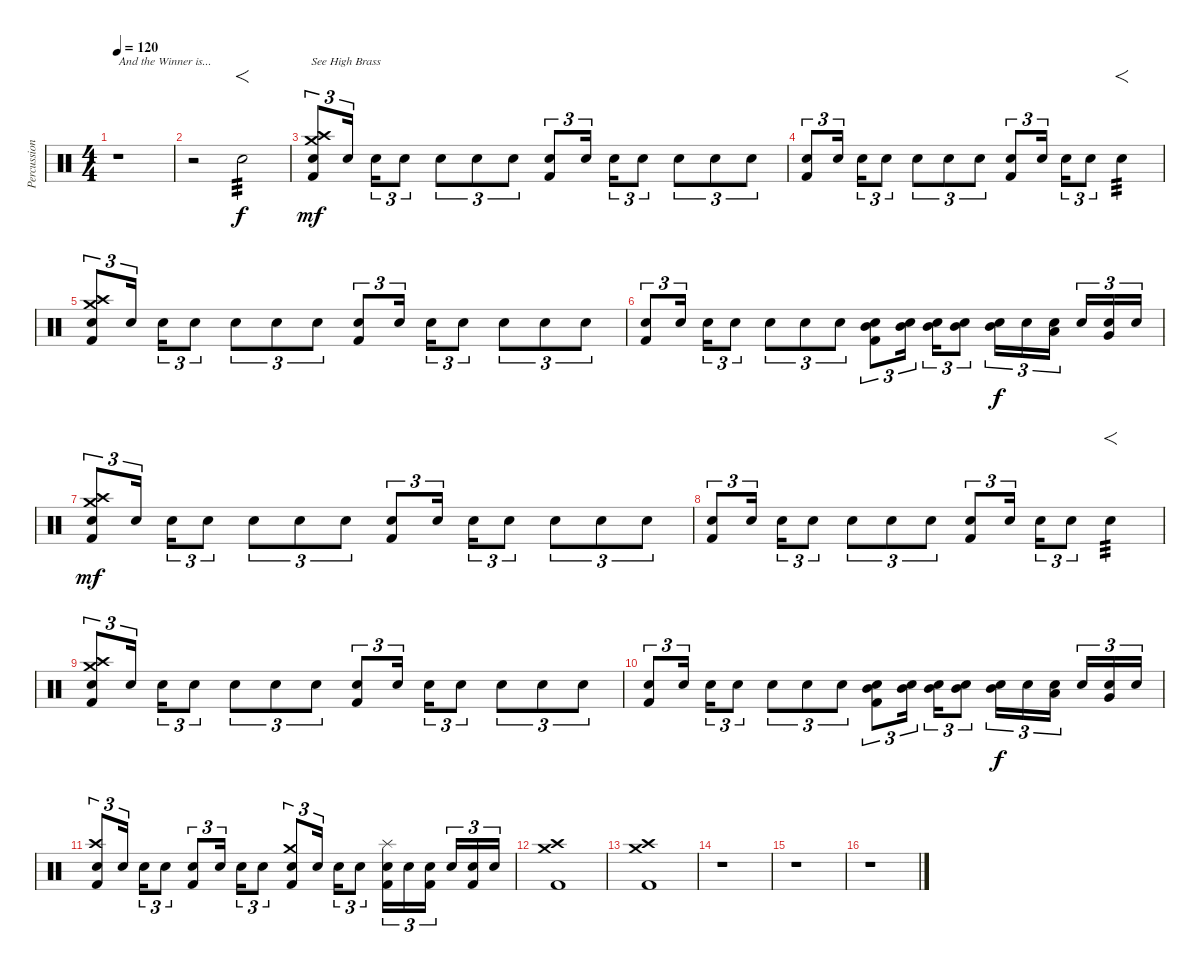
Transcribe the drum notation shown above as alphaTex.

\track ("Percussion" "Percussion") {instrument percussion}
\staff {score}
\articulation defaults
\ts (4 4)
\tempo 120
\clef neutral
\ks c
r.1{txt "And the Winner is..." dy f} |
r.2 "Snare (hit) 2".2{f tp 3} |
("Crash high (hit)" "Crash medium (hit)" "Snare (hit) 2" "Kick (hit) 2").8{tu (3 2) txt "See High Brass" dy mf} "Snare (hit) 2".16{tu (3 2)} "Snare (hit) 2".16{tu (3 2)} "Snare (hit) 2".8{tu (3 2)} "Snare (hit) 2".8{tu (3 2)} "Snare (hit) 2".8{tu (3 2)} "Snare (hit) 2".8{tu (3 2)} ("Snare (hit) 2" "Kick (hit) 2").8{tu (3 2)} "Snare (hit) 2".16{tu (3 2)} "Snare (hit) 2".16{tu (3 2)} "Snare (hit) 2".8{tu (3 2)} "Snare (hit) 2".8{tu (3 2)} "Snare (hit) 2".8{tu (3 2)} "Snare (hit) 2".8{tu (3 2)} |
("Snare (hit) 2" "Kick (hit) 2").8{tu (3 2)} "Snare (hit) 2".16{tu (3 2)} "Snare (hit) 2".16{tu (3 2)} "Snare (hit) 2".8{tu (3 2)} "Snare (hit) 2".8{tu (3 2)} "Snare (hit) 2".8{tu (3 2)} "Snare (hit) 2".8{tu (3 2)} ("Snare (hit) 2" "Kick (hit) 2").8{tu (3 2)} "Snare (hit) 2".16{tu (3 2)} "Snare (hit) 2".16{tu (3 2)} "Snare (hit) 2".8{tu (3 2)} "Snare (hit) 2".4{f tp 3} |
("Crash high (hit)" "Crash medium (hit)" "Snare (hit) 2" "Kick (hit) 2").8{tu (3 2)} "Snare (hit) 2".16{tu (3 2)} "Snare (hit) 2".16{tu (3 2)} "Snare (hit) 2".8{tu (3 2)} "Snare (hit) 2".8{tu (3 2)} "Snare (hit) 2".8{tu (3 2)} "Snare (hit) 2".8{tu (3 2)} ("Snare (hit) 2" "Kick (hit) 2").8{tu (3 2)} "Snare (hit) 2".16{tu (3 2)} "Snare (hit) 2".16{tu (3 2)} "Snare (hit) 2".8{tu (3 2)} "Snare (hit) 2".8{tu (3 2)} "Snare (hit) 2".8{tu (3 2)} "Snare (hit) 2".8{tu (3 2)} |
("Snare (hit) 2" "Kick (hit) 2").8{tu (3 2)} "Snare (hit) 2".16{tu (3 2)} "Snare (hit) 2".16{tu (3 2)} "Snare (hit) 2".8{tu (3 2)} "Snare (hit) 2".8{tu (3 2)} "Snare (hit) 2".8{tu (3 2)} "Snare (hit) 2".8{tu (3 2)} ("Mid Tom (hit)" "Snare (hit) 2" "Kick (hit) 2").8{tu (3 2)} ("Mid Tom (hit)" "Snare (hit) 2").16{tu (3 2)} ("Mid Tom (hit)" "Snare (hit) 2").16{tu (3 2)} ("Mid Tom (hit)" "Snare (hit) 2").8{tu (3 2)} ("Mid Tom (hit)" "Snare (hit) 2").16{tu (3 2) dy f} "Snare (hit) 2".16{tu (3 2)} ("Low Tom (hit)" "Snare (hit) 2").16{tu (3 2)} "Snare (hit) 2".16{tu (3 2)} ("Very Low Tom (hit)" "Snare (hit) 2").16{tu (3 2)} "Snare (hit) 2".16{tu (3 2)} |
("Crash high (hit)" "Crash medium (hit)" "Snare (hit) 2" "Kick (hit) 2").8{tu (3 2) dy mf} "Snare (hit) 2".16{tu (3 2)} "Snare (hit) 2".16{tu (3 2)} "Snare (hit) 2".8{tu (3 2)} "Snare (hit) 2".8{tu (3 2)} "Snare (hit) 2".8{tu (3 2)} "Snare (hit) 2".8{tu (3 2)} ("Snare (hit) 2" "Kick (hit) 2").8{tu (3 2)} "Snare (hit) 2".16{tu (3 2)} "Snare (hit) 2".16{tu (3 2)} "Snare (hit) 2".8{tu (3 2)} "Snare (hit) 2".8{tu (3 2)} "Snare (hit) 2".8{tu (3 2)} "Snare (hit) 2".8{tu (3 2)} |
("Snare (hit) 2" "Kick (hit) 2").8{tu (3 2)} "Snare (hit) 2".16{tu (3 2)} "Snare (hit) 2".16{tu (3 2)} "Snare (hit) 2".8{tu (3 2)} "Snare (hit) 2".8{tu (3 2)} "Snare (hit) 2".8{tu (3 2)} "Snare (hit) 2".8{tu (3 2)} ("Snare (hit) 2" "Kick (hit) 2").8{tu (3 2)} "Snare (hit) 2".16{tu (3 2)} "Snare (hit) 2".16{tu (3 2)} "Snare (hit) 2".8{tu (3 2)} "Snare (hit) 2".4{f tp 3} |
("Crash high (hit)" "Crash medium (hit)" "Snare (hit) 2" "Kick (hit) 2").8{tu (3 2)} "Snare (hit) 2".16{tu (3 2)} "Snare (hit) 2".16{tu (3 2)} "Snare (hit) 2".8{tu (3 2)} "Snare (hit) 2".8{tu (3 2)} "Snare (hit) 2".8{tu (3 2)} "Snare (hit) 2".8{tu (3 2)} ("Snare (hit) 2" "Kick (hit) 2").8{tu (3 2)} "Snare (hit) 2".16{tu (3 2)} "Snare (hit) 2".16{tu (3 2)} "Snare (hit) 2".8{tu (3 2)} "Snare (hit) 2".8{tu (3 2)} "Snare (hit) 2".8{tu (3 2)} "Snare (hit) 2".8{tu (3 2)} |
("Snare (hit) 2" "Kick (hit) 2").8{tu (3 2)} "Snare (hit) 2".16{tu (3 2)} "Snare (hit) 2".16{tu (3 2)} "Snare (hit) 2".8{tu (3 2)} "Snare (hit) 2".8{tu (3 2)} "Snare (hit) 2".8{tu (3 2)} "Snare (hit) 2".8{tu (3 2)} ("Mid Tom (hit)" "Snare (hit) 2" "Kick (hit) 2").8{tu (3 2)} ("Mid Tom (hit)" "Snare (hit) 2").16{tu (3 2)} ("Mid Tom (hit)" "Snare (hit) 2").16{tu (3 2)} ("Mid Tom (hit)" "Snare (hit) 2").8{tu (3 2)} ("Mid Tom (hit)" "Snare (hit) 2").16{tu (3 2) dy f} "Snare (hit) 2".16{tu (3 2)} ("Low Tom (hit)" "Snare (hit) 2").16{tu (3 2)} "Snare (hit) 2".16{tu (3 2)} ("Very Low Tom (hit)" "Snare (hit) 2").16{tu (3 2)} "Snare (hit) 2".16{tu (3 2)} |
("Crash high (hit)" "Snare (hit) 2" "Kick (hit) 2").8{tu (3 2)} "Snare (hit) 2".16{tu (3 2)} "Snare (hit) 2".16{tu (3 2)} "Snare (hit) 2".8{tu (3 2)} ("Snare (hit) 2" "Kick (hit) 2").8{tu (3 2)} "Snare (hit) 2".16{tu (3 2)} "Snare (hit) 2".16{tu (3 2)} "Snare (hit) 2".8{tu (3 2)} ("Crash medium (hit)" "Snare (hit) 2" "Kick (hit) 2").8{tu (3 2)} "Snare (hit) 2".16{tu (3 2)} "Snare (hit) 2".16{tu (3 2)} "Snare (hit) 2".8{tu (3 2)} ("Splash (hit)" "Snare (hit) 2" "Kick (hit) 2").16{tu (3 2)} "Snare (hit) 2".16{tu (3 2)} ("Snare (hit) 2" "Kick (hit) 2").16{tu (3 2)} "Snare (hit) 2".16{tu (3 2)} ("Snare (hit) 2" "Kick (hit) 2").16{tu (3 2)} "Snare (hit) 2".16{tu (3 2)} |
("Crash high (hit)" "Crash medium (hit)" "Kick (hit) 2").1 |
("Crash high (hit)" "Crash medium (hit)" "Kick (hit) 2").1 |
r.1 |
r.1 |
r.1
